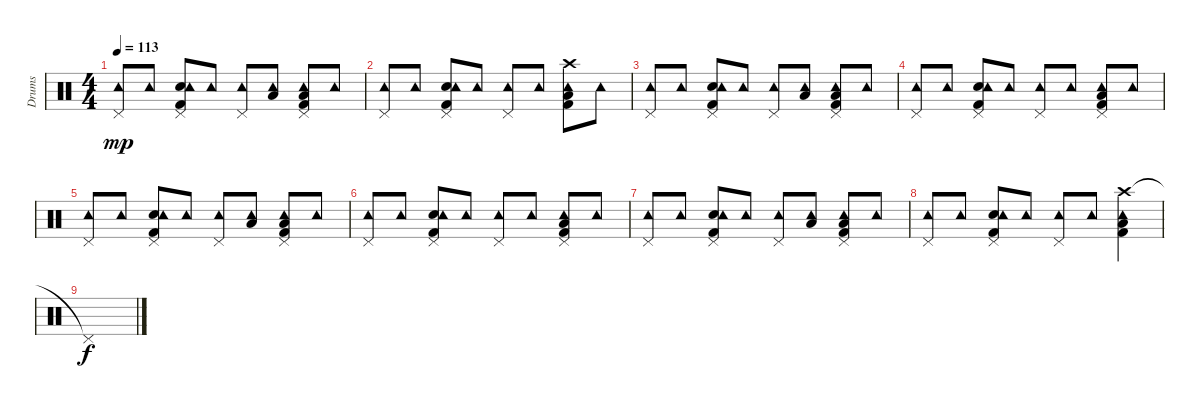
\track ("Drums" "Drums") {instrument percussion}
\staff {score}
\articulation defaults
\ts (4 4)
\tempo 113
\clef neutral
\ks c
("Pedal Hi-Hat (hit)" "Tambourine (hit)").8{dy mp} "Tambourine (hit)".8 ("Pedal Hi-Hat (hit)" "Kick (hit) 2" "Electric Snare (hit)" "Tambourine (hit)").8 "Tambourine (hit)".8 ("Pedal Hi-Hat (hit)" "Tambourine (hit)").8 ("Low Floor Tom (hit)" "Tambourine (hit)").8 ("Pedal Hi-Hat (hit)" "Kick (hit) 2" "Low Floor Tom (hit)" "Tambourine (hit)").8 "Tambourine (hit)".8 |
("Pedal Hi-Hat (hit)" "Tambourine (hit)").8 "Tambourine (hit)".8 ("Pedal Hi-Hat (hit)" "Kick (hit) 2" "Electric Snare (hit)" "Tambourine (hit)").8 "Tambourine (hit)".8 ("Pedal Hi-Hat (hit)" "Tambourine (hit)").8 "Tambourine (hit)".8 ("Crash high (hit)" "Kick (hit) 2" "Low Floor Tom (hit)" "Tambourine (hit)").8 "Tambourine (hit)".8 |
("Pedal Hi-Hat (hit)" "Tambourine (hit)").8 "Tambourine (hit)".8 ("Pedal Hi-Hat (hit)" "Kick (hit) 2" "Electric Snare (hit)" "Tambourine (hit)").8 "Tambourine (hit)".8 ("Pedal Hi-Hat (hit)" "Tambourine (hit)").8 ("Low Floor Tom (hit)" "Tambourine (hit)").8 ("Pedal Hi-Hat (hit)" "Kick (hit) 2" "Low Floor Tom (hit)" "Tambourine (hit)").8 "Tambourine (hit)".8 |
("Pedal Hi-Hat (hit)" "Tambourine (hit)").8 "Tambourine (hit)".8 ("Pedal Hi-Hat (hit)" "Kick (hit) 2" "Electric Snare (hit)" "Tambourine (hit)").8 "Tambourine (hit)".8 ("Pedal Hi-Hat (hit)" "Tambourine (hit)").8 "Tambourine (hit)".8 ("Pedal Hi-Hat (hit)" "Kick (hit) 2" "Low Floor Tom (hit)" "Tambourine (hit)").8 "Tambourine (hit)".8 |
("Pedal Hi-Hat (hit)" "Tambourine (hit)").8 "Tambourine (hit)".8 ("Pedal Hi-Hat (hit)" "Kick (hit) 2" "Electric Snare (hit)" "Tambourine (hit)").8 "Tambourine (hit)".8 ("Pedal Hi-Hat (hit)" "Tambourine (hit)").8 ("Low Floor Tom (hit)" "Tambourine (hit)").8 ("Pedal Hi-Hat (hit)" "Kick (hit) 2" "Low Floor Tom (hit)" "Tambourine (hit)").8 "Tambourine (hit)".8 |
("Pedal Hi-Hat (hit)" "Tambourine (hit)").8 "Tambourine (hit)".8 ("Pedal Hi-Hat (hit)" "Kick (hit) 2" "Electric Snare (hit)" "Tambourine (hit)").8 "Tambourine (hit)".8 ("Pedal Hi-Hat (hit)" "Tambourine (hit)").8 "Tambourine (hit)".8 ("Pedal Hi-Hat (hit)" "Kick (hit) 2" "Low Floor Tom (hit)" "Tambourine (hit)").8 "Tambourine (hit)".8 |
("Pedal Hi-Hat (hit)" "Tambourine (hit)").8 "Tambourine (hit)".8 ("Pedal Hi-Hat (hit)" "Kick (hit) 2" "Electric Snare (hit)" "Tambourine (hit)").8 "Tambourine (hit)".8 ("Pedal Hi-Hat (hit)" "Tambourine (hit)").8 ("Low Floor Tom (hit)" "Tambourine (hit)").8 ("Pedal Hi-Hat (hit)" "Kick (hit) 2" "Low Floor Tom (hit)" "Tambourine (hit)").8 "Tambourine (hit)".8 |
("Pedal Hi-Hat (hit)" "Tambourine (hit)").8 "Tambourine (hit)".8 ("Pedal Hi-Hat (hit)" "Kick (hit) 2" "Electric Snare (hit)" "Tambourine (hit)").8 "Tambourine (hit)".8 ("Pedal Hi-Hat (hit)" "Tambourine (hit)").8 "Tambourine (hit)".8 ("Crash high (hit)" "Kick (hit) 2" "Low Floor Tom (hit)" "Tambourine (hit)").4 |
"Pedal Hi-Hat (hit)"{t}.1{dy f}
